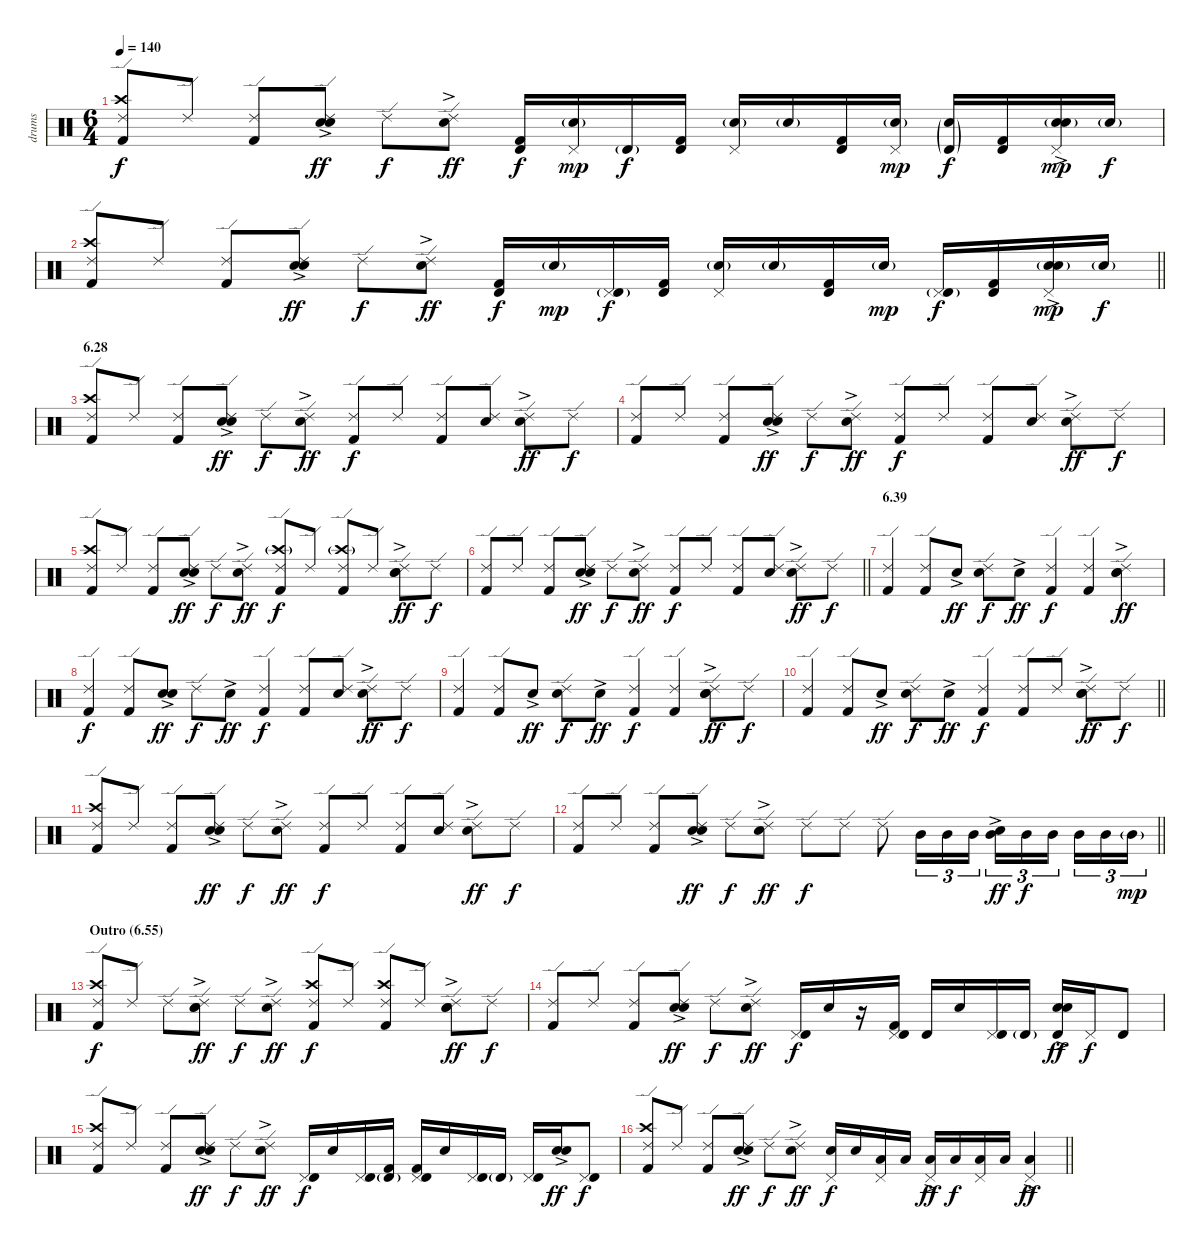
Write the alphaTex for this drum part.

\track ("drums" "drums") {instrument percussion}
\staff {score}
\articulation defaults
\ts (6 4)
\tempo 140
\clef neutral
\ks c
("Ride (edge) 2" "Crash high (hit)" "Kick (hit) 2").8{dy f} "Ride (edge) 2".8 ("Ride (edge) 2" "Kick (hit) 2").8 ("Ride (edge) 2" "Hand Clap (hit)"{ac} "Electric Snare (hit)").8{dy ff} "Ride (edge) 2".8{dy f} ("Ride (edge) 2" "Hand Clap (hit)"{ac}).8{dy ff} ("Timbale high (hit)" "Kick (hit) 2").16{dy f} ("Pedal Hi-Hat (hit)" "Electric Snare (hit)"{g}).16{dy mp} "Timbale high (hit)"{g}.16{dy f} ("Timbale high (hit)" "Kick (hit) 2").16 ("Pedal Hi-Hat (hit)" "Electric Snare (hit)"{g}).16 "Electric Snare (hit)"{g}.16 ("Timbale high (hit)" "Kick (hit) 2").16 ("Pedal Hi-Hat (hit)" "Electric Snare (hit)"{g}).16{dy mp} ("Timbale high (hit)"{g} "Electric Snare (hit)"{g}).16{dy f} ("Timbale high (hit)" "Kick (hit) 2").16 ("Pedal Hi-Hat (hit)" "Hand Clap (hit)"{ac} "Electric Snare (hit)"{g}).16{dy mp} "Electric Snare (hit)"{g}.16{dy f} |
\barLineRight lightlight
("Ride (edge) 2" "Crash high (hit)" "Kick (hit) 2").8 "Ride (edge) 2".8 ("Ride (edge) 2" "Kick (hit) 2").8 ("Ride (edge) 2" "Hand Clap (hit)"{ac} "Electric Snare (hit)").8{dy ff} "Ride (edge) 2".8{dy f} ("Ride (edge) 2" "Hand Clap (hit)"{ac}).8{dy ff} ("Timbale high (hit)" "Kick (hit) 2").16{dy f} "Electric Snare (hit)"{g}.16{dy mp} ("Pedal Hi-Hat (hit)" "Timbale high (hit)"{g}).16{dy f} ("Timbale high (hit)" "Kick (hit) 2").16 ("Pedal Hi-Hat (hit)" "Electric Snare (hit)"{g}).16 "Electric Snare (hit)"{g}.16 ("Timbale high (hit)" "Kick (hit) 2").16 "Electric Snare (hit)"{g}.16{dy mp} ("Pedal Hi-Hat (hit)" "Timbale high (hit)"{g}).16{dy f} ("Timbale high (hit)" "Kick (hit) 2").16 ("Pedal Hi-Hat (hit)" "Hand Clap (hit)"{ac} "Electric Snare (hit)"{g}).16{dy mp} "Electric Snare (hit)"{g}.16{dy f} |
\section ("" "6.28")
("Ride (edge) 2" "Crash high (hit)" "Kick (hit) 2").8 "Ride (edge) 2".8 ("Ride (edge) 2" "Kick (hit) 2").8 ("Ride (edge) 2" "Hand Clap (hit)"{ac} "Electric Snare (hit)").8{dy ff} "Ride (edge) 2".8{dy f} ("Ride (edge) 2" "Hand Clap (hit)"{ac}).8{dy ff} ("Ride (edge) 2" "Kick (hit) 2").8{dy f} "Ride (edge) 2".8 ("Ride (edge) 2" "Kick (hit) 2").8 ("Ride (edge) 2" "Electric Snare (hit)").8 ("Ride (edge) 2" "Hand Clap (hit)"{ac}).8{dy ff} "Ride (edge) 2".8{dy f} |
("Ride (edge) 2" "Kick (hit) 2").8 "Ride (edge) 2".8 ("Ride (edge) 2" "Kick (hit) 2").8 ("Ride (edge) 2" "Hand Clap (hit)"{ac} "Electric Snare (hit)").8{dy ff} "Ride (edge) 2".8{dy f} ("Ride (edge) 2" "Hand Clap (hit)"{ac}).8{dy ff} ("Ride (edge) 2" "Kick (hit) 2").8{dy f} "Ride (edge) 2".8 ("Ride (edge) 2" "Kick (hit) 2").8 ("Ride (edge) 2" "Electric Snare (hit)").8 ("Ride (edge) 2" "Hand Clap (hit)"{ac}).8{dy ff} "Ride (edge) 2".8{dy f} |
("Ride (edge) 2" "Crash high (hit)" "Kick (hit) 2").8 "Ride (edge) 2".8 ("Ride (edge) 2" "Kick (hit) 2").8 ("Ride (edge) 2" "Hand Clap (hit)"{ac} "Electric Snare (hit)").8{dy ff} "Ride (edge) 2".8{dy f} ("Ride (edge) 2" "Hand Clap (hit)"{ac}).8{dy ff} ("Ride (edge) 2" "Crash high (hit)"{g} "Kick (hit) 2").8{dy f} "Ride (edge) 2".8 ("Ride (edge) 2" "Crash high (hit)"{g} "Kick (hit) 2").8 "Ride (edge) 2".8 ("Ride (edge) 2" "Hand Clap (hit)"{ac} "Electric Snare (hit)").8{dy ff} "Ride (edge) 2".8{dy f} |
\barLineRight lightlight
("Ride (edge) 2" "Kick (hit) 2").8 "Ride (edge) 2".8 ("Ride (edge) 2" "Kick (hit) 2").8 ("Ride (edge) 2" "Hand Clap (hit)"{ac} "Electric Snare (hit)").8{dy ff} "Ride (edge) 2".8{dy f} ("Ride (edge) 2" "Hand Clap (hit)"{ac}).8{dy ff} ("Ride (edge) 2" "Kick (hit) 2").8{dy f} "Ride (edge) 2".8 ("Ride (edge) 2" "Kick (hit) 2").8 ("Ride (edge) 2" "Electric Snare (hit)").8 ("Ride (edge) 2" "Hand Clap (hit)"{ac}).8{dy ff} "Ride (edge) 2".8{dy f} |
\section ("" "6.39")
("Ride (edge) 2" "Kick (hit) 2").4 ("Ride (edge) 2" "Kick (hit) 2").8 "Hand Clap (hit)"{ac}.8{dy ff} ("Ride (edge) 2" "Electric Snare (hit)").8{dy f} "Hand Clap (hit)"{ac}.8{dy ff} ("Ride (edge) 2" "Kick (hit) 2").4{dy f} ("Ride (edge) 2" "Kick (hit) 2").4 ("Ride (edge) 2" "Hand Clap (hit)"{ac} "Electric Snare (hit)").4{dy ff} |
("Ride (edge) 2" "Kick (hit) 2").4{dy f} ("Ride (edge) 2" "Kick (hit) 2").8 ("Hand Clap (hit)"{ac} "Electric Snare (hit)").8{dy ff} "Ride (edge) 2".8{dy f} "Hand Clap (hit)"{ac}.8{dy ff} ("Ride (edge) 2" "Kick (hit) 2").4{dy f} ("Ride (edge) 2" "Kick (hit) 2").8 ("Ride (edge) 2" "Electric Snare (hit)").8 ("Ride (edge) 2" "Hand Clap (hit)"{ac}).8{dy ff} "Ride (edge) 2".8{dy f} |
("Ride (edge) 2" "Kick (hit) 2").4 ("Ride (edge) 2" "Kick (hit) 2").8 "Hand Clap (hit)"{ac}.8{dy ff} ("Ride (edge) 2" "Electric Snare (hit)").8{dy f} "Hand Clap (hit)"{ac}.8{dy ff} ("Ride (edge) 2" "Kick (hit) 2").4{dy f} ("Ride (edge) 2" "Kick (hit) 2").4 ("Ride (edge) 2" "Hand Clap (hit)"{ac} "Electric Snare (hit)").8{dy ff} "Ride (edge) 2".8{dy f} |
\barLineRight lightlight
("Ride (edge) 2" "Kick (hit) 2").4 ("Ride (edge) 2" "Kick (hit) 2").8 "Hand Clap (hit)"{ac}.8{dy ff} ("Ride (edge) 2" "Electric Snare (hit)").8{dy f} "Hand Clap (hit)"{ac}.8{dy ff} ("Ride (edge) 2" "Kick (hit) 2").4{dy f} ("Ride (edge) 2" "Kick (hit) 2").8 "Ride (edge) 2".8 ("Ride (edge) 2" "Hand Clap (hit)"{ac} "Electric Snare (hit)").8{dy ff} "Ride (edge) 2".8{dy f} |
("Ride (edge) 2" "Crash high (hit)" "Kick (hit) 2").8 "Ride (edge) 2".8 ("Ride (edge) 2" "Kick (hit) 2").8 ("Ride (edge) 2" "Hand Clap (hit)"{ac} "Electric Snare (hit)").8{dy ff} "Ride (edge) 2".8{dy f} ("Ride (edge) 2" "Hand Clap (hit)"{ac}).8{dy ff} ("Ride (edge) 2" "Kick (hit) 2").8{dy f} "Ride (edge) 2".8 ("Ride (edge) 2" "Kick (hit) 2").8 ("Ride (edge) 2" "Electric Snare (hit)").8 ("Ride (edge) 2" "Hand Clap (hit)"{ac}).8{dy ff} "Ride (edge) 2".8{dy f} |
\barLineRight lightlight
("Ride (edge) 2" "Kick (hit) 2").8 "Ride (edge) 2".8 ("Ride (edge) 2" "Kick (hit) 2").8 ("Ride (edge) 2" "Hand Clap (hit)"{ac} "Electric Snare (hit)").8{dy ff} "Ride (edge) 2".8{dy f} ("Ride (edge) 2" "Hand Clap (hit)"{ac}).8{dy ff} "Ride (edge) 2".8{dy f} "Ride (edge) 2".8 "Ride (edge) 2".8 "Mid Tom (hit)".16{tu (3 2)} "Mid Tom (hit)".16{tu (3 2)} "Mid Tom (hit)".16{tu (3 2) beam splitsecondary} ("Hand Clap (hit)"{ac} "Mid Tom (hit)").16{tu (3 2) dy ff} "Mid Tom (hit)".16{tu (3 2) dy f} "Mid Tom (hit)".16{tu (3 2) beam splitsecondary} "Mid Tom (hit)".16{tu (3 2)} "Mid Tom (hit)".16{tu (3 2)} "Mid Tom (hit)"{g}.16{tu (3 2) dy mp} |
\section ("" "Outro (6.55)")
("Ride (edge) 2" "Crash high (hit)" "Kick (hit) 2").8{dy f} "Ride (edge) 2".8 "Ride (edge) 2".8 ("Ride (edge) 2" "Hand Clap (hit)"{ac} "Electric Snare (hit)").8{dy ff} "Ride (edge) 2".8{dy f} ("Ride (edge) 2" "Hand Clap (hit)"{ac}).8{dy ff} ("Ride (edge) 2" "Crash high (hit)" "Kick (hit) 2").8{dy f} "Ride (edge) 2".8 ("Ride (edge) 2" "Crash high (hit)" "Kick (hit) 2").8 "Ride (edge) 2".8 ("Ride (edge) 2" "Hand Clap (hit)"{ac} "Electric Snare (hit)").8{dy ff} "Ride (edge) 2".8{dy f} |
("Ride (edge) 2" "Kick (hit) 2").8 "Ride (edge) 2".8 ("Ride (edge) 2" "Kick (hit) 2").8 ("Ride (edge) 2" "Hand Clap (hit)"{ac} "Electric Snare (hit)").8{dy ff} "Ride (edge) 2".8{dy f} ("Ride (edge) 2" "Hand Clap (hit)"{ac}).8{dy ff} ("Pedal Hi-Hat (hit)" "Timbale high (hit)").16{dy f} "Electric Snare (hit)".16 r.16 ("Pedal Hi-Hat (hit)" "Timbale high (hit)" "Kick (hit) 2").16 "Timbale high (hit)".16 "Electric Snare (hit)".16 ("Pedal Hi-Hat (hit)" "Timbale high (hit)").16 "Timbale high (hit)"{g}.16 ("Timbale high (hit)" "Hand Clap (hit)"{ac} "Electric Snare (hit)").16{dy ff} "Pedal Hi-Hat (hit)".16{dy f} "Timbale high (hit)".8 |
("Ride (edge) 2" "Crash high (hit)" "Kick (hit) 2").8 "Ride (edge) 2".8 ("Ride (edge) 2" "Kick (hit) 2").8 ("Ride (edge) 2" "Hand Clap (hit)"{ac} "Electric Snare (hit)").8{dy ff} "Ride (edge) 2".8{dy f} ("Ride (edge) 2" "Hand Clap (hit)"{ac}).8{dy ff} ("Pedal Hi-Hat (hit)" "Timbale high (hit)").16{dy f} "Electric Snare (hit)".16 ("Pedal Hi-Hat (hit)" "Timbale high (hit)").16 ("Timbale high (hit)"{g} "Kick (hit) 2").16 ("Pedal Hi-Hat (hit)" "Timbale high (hit)" "Kick (hit) 2").16 "Electric Snare (hit)".16 ("Pedal Hi-Hat (hit)" "Timbale high (hit)").16 "Timbale high (hit)"{g}.16 ("Pedal Hi-Hat (hit)" "Timbale high (hit)").16 ("Hand Clap (hit)"{ac} "Electric Snare (hit)").16{dy ff} ("Pedal Hi-Hat (hit)" "Timbale high (hit)").8{dy f} |
\barLineRight lightlight
("Ride (edge) 2" "Crash high (hit)" "Kick (hit) 2").8 "Ride (edge) 2".8 ("Ride (edge) 2" "Kick (hit) 2").8 ("Ride (edge) 2" "Hand Clap (hit)"{ac} "Electric Snare (hit)").8{dy ff} "Ride (edge) 2".8{dy f} ("Ride (edge) 2" "Hand Clap (hit)"{ac}).8{dy ff} ("Pedal Hi-Hat (hit)" "Electric Snare (hit)").16{dy f} "Electric Snare (hit)".16 ("Pedal Hi-Hat (hit)" "Low Tom (hit)").16 "Low Tom (hit)".16 ("Pedal Hi-Hat (hit)" "Low Tom (hit)"{ac}).16{dy ff} "Low Tom (hit)".16{dy f} ("Pedal Hi-Hat (hit)" "Low Tom (hit)").16 "Low Tom (hit)".16 ("Pedal Hi-Hat (hit)" "Low Tom (hit)"{ac}).4{dy ff}
